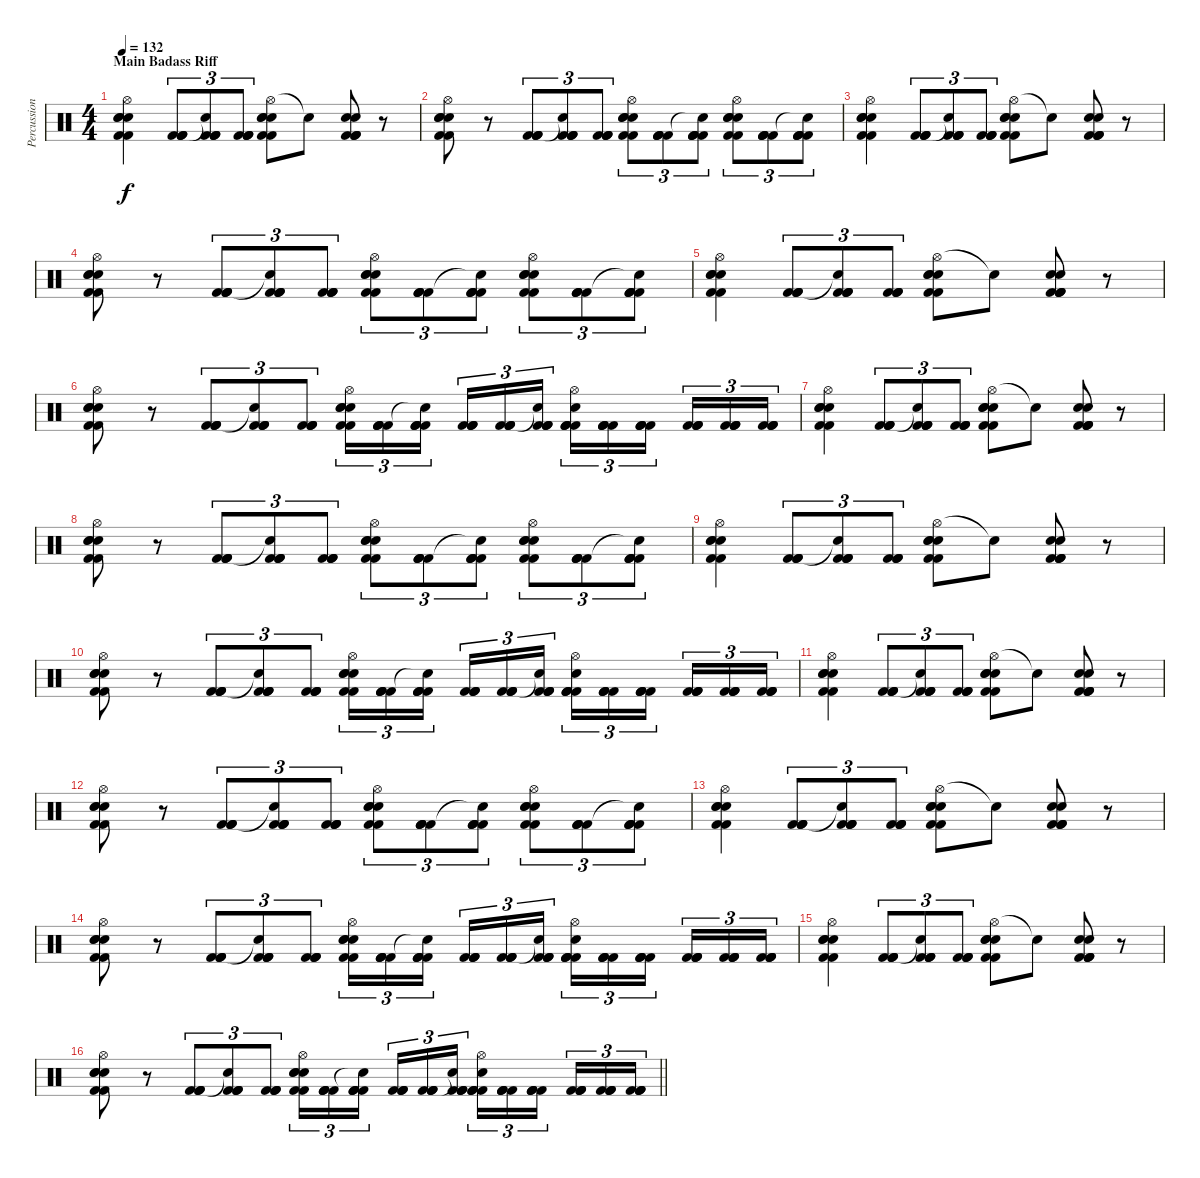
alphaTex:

\track ("Percussion" "Percussion") {instrument percussion}
\staff {score}
\articulation defaults
\ts (4 4)
\section ("" "Main Badass Riff")
\tempo 132
\clef neutral
\ks c
("Hi-Hat (open)" "Electric Snare (hit)" "Snare (hit) 2" "Snare (hit) 2" "Kick (hit) 2" "Kick (hit) 2").4{dy f} ("Kick (hit) 2" "Kick (hit) 2" "Kick (hit) 2" "Kick (hit) 2").8{tu (3 2)} ("Snare (hit)"{t} "Kick (hit) 2" "Kick (hit) 2" "Kick (hit) 2" "Kick (hit) 2").8{tu (3 2)} ("Kick (hit) 2" "Kick (hit) 2" "Kick (hit) 2" "Kick (hit) 2").8{tu (3 2)} ("Hi-Hat (open)" "Electric Snare (hit)" "Snare (hit) 2" "Snare (hit) 2" "Kick (hit) 2" "Kick (hit) 2").8 "Snare (hit)"{t}.8 ("Kick (hit) 2" "Kick (hit) 2" "Snare (hit) 2" "Snare (hit) 2" "Kick (hit) 2" "Kick (hit) 2").8 r.8 |
("Hi-Hat (open)" "Electric Snare (hit)" "Snare (hit) 2" "Snare (hit) 2" "Kick (hit) 2" "Kick (hit) 2").8 r.8 ("Kick (hit) 2" "Kick (hit) 2" "Kick (hit) 2" "Kick (hit) 2").8{tu (3 2)} ("Snare (hit)"{t} "Kick (hit) 2" "Kick (hit) 2" "Kick (hit) 2" "Kick (hit) 2").8{tu (3 2)} ("Kick (hit) 2" "Kick (hit) 2" "Kick (hit) 2" "Kick (hit) 2").8{tu (3 2)} ("Hi-Hat (open)" "Electric Snare (hit)" "Snare (hit) 2" "Snare (hit) 2" "Kick (hit) 2" "Kick (hit) 2").8{tu (3 2)} ("Kick (hit) 2" "Kick (hit) 2" "Kick (hit) 2" "Kick (hit) 2").8{tu (3 2)} ("Snare (hit)"{t} "Kick (hit) 2" "Kick (hit) 2" "Kick (hit) 2" "Kick (hit) 2").8{tu (3 2)} ("Hi-Hat (open)" "Electric Snare (hit)" "Snare (hit) 2" "Snare (hit) 2" "Kick (hit) 2" "Kick (hit) 2").8{tu (3 2)} ("Kick (hit) 2" "Kick (hit) 2" "Kick (hit) 2" "Kick (hit) 2").8{tu (3 2)} ("Snare (hit)"{t} "Kick (hit) 2" "Kick (hit) 2" "Kick (hit) 2" "Kick (hit) 2").8{tu (3 2)} |
("Hi-Hat (open)" "Electric Snare (hit)" "Snare (hit) 2" "Snare (hit) 2" "Kick (hit) 2" "Kick (hit) 2").4 ("Kick (hit) 2" "Kick (hit) 2" "Kick (hit) 2" "Kick (hit) 2").8{tu (3 2)} ("Snare (hit)"{t} "Kick (hit) 2" "Kick (hit) 2" "Kick (hit) 2" "Kick (hit) 2").8{tu (3 2)} ("Kick (hit) 2" "Kick (hit) 2" "Kick (hit) 2" "Kick (hit) 2").8{tu (3 2)} ("Hi-Hat (open)" "Electric Snare (hit)" "Snare (hit) 2" "Snare (hit) 2" "Kick (hit) 2" "Kick (hit) 2").8 "Snare (hit)"{t}.8 ("Kick (hit) 2" "Kick (hit) 2" "Snare (hit) 2" "Snare (hit) 2" "Kick (hit) 2" "Kick (hit) 2").8 r.8 |
("Hi-Hat (open)" "Electric Snare (hit)" "Snare (hit) 2" "Snare (hit) 2" "Kick (hit) 2" "Kick (hit) 2").8 r.8 ("Kick (hit) 2" "Kick (hit) 2" "Kick (hit) 2" "Kick (hit) 2").8{tu (3 2)} ("Snare (hit)"{t} "Kick (hit) 2" "Kick (hit) 2" "Kick (hit) 2" "Kick (hit) 2").8{tu (3 2)} ("Kick (hit) 2" "Kick (hit) 2" "Kick (hit) 2" "Kick (hit) 2").8{tu (3 2)} ("Hi-Hat (open)" "Electric Snare (hit)" "Snare (hit) 2" "Snare (hit) 2" "Kick (hit) 2" "Kick (hit) 2").8{tu (3 2)} ("Kick (hit) 2" "Kick (hit) 2" "Kick (hit) 2" "Kick (hit) 2").8{tu (3 2)} ("Snare (hit)"{t} "Kick (hit) 2" "Kick (hit) 2" "Kick (hit) 2" "Kick (hit) 2").8{tu (3 2)} ("Hi-Hat (open)" "Electric Snare (hit)" "Snare (hit) 2" "Snare (hit) 2" "Kick (hit) 2" "Kick (hit) 2").8{tu (3 2)} ("Kick (hit) 2" "Kick (hit) 2" "Kick (hit) 2" "Kick (hit) 2").8{tu (3 2)} ("Snare (hit)"{t} "Kick (hit) 2" "Kick (hit) 2" "Kick (hit) 2" "Kick (hit) 2").8{tu (3 2)} |
("Hi-Hat (open)" "Electric Snare (hit)" "Snare (hit) 2" "Snare (hit) 2" "Kick (hit) 2" "Kick (hit) 2").4 ("Kick (hit) 2" "Kick (hit) 2" "Kick (hit) 2" "Kick (hit) 2").8{tu (3 2)} ("Snare (hit)"{t} "Kick (hit) 2" "Kick (hit) 2" "Kick (hit) 2" "Kick (hit) 2").8{tu (3 2)} ("Kick (hit) 2" "Kick (hit) 2" "Kick (hit) 2" "Kick (hit) 2").8{tu (3 2)} ("Hi-Hat (open)" "Electric Snare (hit)" "Snare (hit) 2" "Snare (hit) 2" "Kick (hit) 2" "Kick (hit) 2").8 "Snare (hit)"{t}.8 ("Kick (hit) 2" "Kick (hit) 2" "Snare (hit) 2" "Snare (hit) 2" "Kick (hit) 2" "Kick (hit) 2").8 r.8 |
("Hi-Hat (open)" "Electric Snare (hit)" "Snare (hit) 2" "Snare (hit) 2" "Kick (hit) 2" "Kick (hit) 2").8 r.8 ("Kick (hit) 2" "Kick (hit) 2" "Kick (hit) 2" "Kick (hit) 2").8{tu (3 2)} ("Snare (hit)"{t} "Kick (hit) 2" "Kick (hit) 2" "Kick (hit) 2" "Kick (hit) 2").8{tu (3 2)} ("Kick (hit) 2" "Kick (hit) 2" "Kick (hit) 2" "Kick (hit) 2").8{tu (3 2)} ("Hi-Hat (open)" "Electric Snare (hit)" "Snare (hit) 2" "Snare (hit) 2" "Kick (hit) 2" "Kick (hit) 2").16{tu (3 2)} ("Kick (hit) 2" "Kick (hit) 2" "Kick (hit) 2" "Kick (hit) 2").16{tu (3 2)} ("Snare (hit)"{t} "Kick (hit) 2" "Kick (hit) 2" "Kick (hit) 2" "Kick (hit) 2").16{tu (3 2) beam splitsecondary} ("Kick (hit) 2" "Kick (hit) 2" "Kick (hit) 2" "Kick (hit) 2").16{tu (3 2)} ("Kick (hit) 2" "Kick (hit) 2" "Kick (hit) 2" "Kick (hit) 2").16{tu (3 2)} ("Snare (hit)"{t} "Kick (hit) 2" "Kick (hit) 2" "Kick (hit) 2" "Kick (hit) 2").16{tu (3 2)} ("Hi-Hat (open)" "Electric Snare (hit)" "Kick (hit) 2" "Kick (hit) 2" "Kick (hit) 2" "Kick (hit) 2").16{tu (3 2)} ("Kick (hit) 2" "Kick (hit) 2" "Kick (hit) 2" "Kick (hit) 2").16{tu (3 2)} ("Kick (hit) 2" "Kick (hit) 2" "Kick (hit) 2" "Kick (hit) 2").16{tu (3 2) beam splitsecondary} ("Kick (hit) 2" "Kick (hit) 2" "Kick (hit) 2" "Kick (hit) 2").16{tu (3 2)} ("Kick (hit) 2" "Kick (hit) 2" "Kick (hit) 2" "Kick (hit) 2").16{tu (3 2)} ("Kick (hit) 2" "Kick (hit) 2" "Kick (hit) 2" "Kick (hit) 2").16{tu (3 2)} |
("Hi-Hat (open)" "Electric Snare (hit)" "Snare (hit) 2" "Snare (hit) 2" "Kick (hit) 2" "Kick (hit) 2").4 ("Kick (hit) 2" "Kick (hit) 2" "Kick (hit) 2" "Kick (hit) 2").8{tu (3 2)} ("Snare (hit)"{t} "Kick (hit) 2" "Kick (hit) 2" "Kick (hit) 2" "Kick (hit) 2").8{tu (3 2)} ("Kick (hit) 2" "Kick (hit) 2" "Kick (hit) 2" "Kick (hit) 2").8{tu (3 2)} ("Hi-Hat (open)" "Electric Snare (hit)" "Snare (hit) 2" "Snare (hit) 2" "Kick (hit) 2" "Kick (hit) 2").8 "Snare (hit)"{t}.8 ("Kick (hit) 2" "Kick (hit) 2" "Snare (hit) 2" "Snare (hit) 2" "Kick (hit) 2" "Kick (hit) 2").8 r.8 |
("Hi-Hat (open)" "Electric Snare (hit)" "Snare (hit) 2" "Snare (hit) 2" "Kick (hit) 2" "Kick (hit) 2").8 r.8 ("Kick (hit) 2" "Kick (hit) 2" "Kick (hit) 2" "Kick (hit) 2").8{tu (3 2)} ("Snare (hit)"{t} "Kick (hit) 2" "Kick (hit) 2" "Kick (hit) 2" "Kick (hit) 2").8{tu (3 2)} ("Kick (hit) 2" "Kick (hit) 2" "Kick (hit) 2" "Kick (hit) 2").8{tu (3 2)} ("Hi-Hat (open)" "Electric Snare (hit)" "Snare (hit) 2" "Snare (hit) 2" "Kick (hit) 2" "Kick (hit) 2").8{tu (3 2)} ("Kick (hit) 2" "Kick (hit) 2" "Kick (hit) 2" "Kick (hit) 2").8{tu (3 2)} ("Snare (hit)"{t} "Kick (hit) 2" "Kick (hit) 2" "Kick (hit) 2" "Kick (hit) 2").8{tu (3 2)} ("Hi-Hat (open)" "Electric Snare (hit)" "Snare (hit) 2" "Snare (hit) 2" "Kick (hit) 2" "Kick (hit) 2").8{tu (3 2)} ("Kick (hit) 2" "Kick (hit) 2" "Kick (hit) 2" "Kick (hit) 2").8{tu (3 2)} ("Snare (hit)"{t} "Kick (hit) 2" "Kick (hit) 2" "Kick (hit) 2" "Kick (hit) 2").8{tu (3 2)} |
("Hi-Hat (open)" "Electric Snare (hit)" "Snare (hit) 2" "Snare (hit) 2" "Kick (hit) 2" "Kick (hit) 2").4 ("Kick (hit) 2" "Kick (hit) 2" "Kick (hit) 2" "Kick (hit) 2").8{tu (3 2)} ("Snare (hit)"{t} "Kick (hit) 2" "Kick (hit) 2" "Kick (hit) 2" "Kick (hit) 2").8{tu (3 2)} ("Kick (hit) 2" "Kick (hit) 2" "Kick (hit) 2" "Kick (hit) 2").8{tu (3 2)} ("Hi-Hat (open)" "Electric Snare (hit)" "Snare (hit) 2" "Snare (hit) 2" "Kick (hit) 2" "Kick (hit) 2").8 "Snare (hit)"{t}.8 ("Kick (hit) 2" "Kick (hit) 2" "Snare (hit) 2" "Snare (hit) 2" "Kick (hit) 2" "Kick (hit) 2").8 r.8 |
("Hi-Hat (open)" "Electric Snare (hit)" "Snare (hit) 2" "Snare (hit) 2" "Kick (hit) 2" "Kick (hit) 2").8 r.8 ("Kick (hit) 2" "Kick (hit) 2" "Kick (hit) 2" "Kick (hit) 2").8{tu (3 2)} ("Snare (hit)"{t} "Kick (hit) 2" "Kick (hit) 2" "Kick (hit) 2" "Kick (hit) 2").8{tu (3 2)} ("Kick (hit) 2" "Kick (hit) 2" "Kick (hit) 2" "Kick (hit) 2").8{tu (3 2)} ("Hi-Hat (open)" "Electric Snare (hit)" "Snare (hit) 2" "Snare (hit) 2" "Kick (hit) 2" "Kick (hit) 2").16{tu (3 2)} ("Kick (hit) 2" "Kick (hit) 2" "Kick (hit) 2" "Kick (hit) 2").16{tu (3 2)} ("Snare (hit)"{t} "Kick (hit) 2" "Kick (hit) 2" "Kick (hit) 2" "Kick (hit) 2").16{tu (3 2) beam splitsecondary} ("Kick (hit) 2" "Kick (hit) 2" "Kick (hit) 2" "Kick (hit) 2").16{tu (3 2)} ("Kick (hit) 2" "Kick (hit) 2" "Kick (hit) 2" "Kick (hit) 2").16{tu (3 2)} ("Snare (hit)"{t} "Kick (hit) 2" "Kick (hit) 2" "Kick (hit) 2" "Kick (hit) 2").16{tu (3 2)} ("Hi-Hat (open)" "Electric Snare (hit)" "Kick (hit) 2" "Kick (hit) 2" "Kick (hit) 2" "Kick (hit) 2").16{tu (3 2)} ("Kick (hit) 2" "Kick (hit) 2" "Kick (hit) 2" "Kick (hit) 2").16{tu (3 2)} ("Kick (hit) 2" "Kick (hit) 2" "Kick (hit) 2" "Kick (hit) 2").16{tu (3 2) beam splitsecondary} ("Kick (hit) 2" "Kick (hit) 2" "Kick (hit) 2" "Kick (hit) 2").16{tu (3 2)} ("Kick (hit) 2" "Kick (hit) 2" "Kick (hit) 2" "Kick (hit) 2").16{tu (3 2)} ("Kick (hit) 2" "Kick (hit) 2" "Kick (hit) 2" "Kick (hit) 2").16{tu (3 2)} |
("Hi-Hat (open)" "Electric Snare (hit)" "Snare (hit) 2" "Snare (hit) 2" "Kick (hit) 2" "Kick (hit) 2").4 ("Kick (hit) 2" "Kick (hit) 2" "Kick (hit) 2" "Kick (hit) 2").8{tu (3 2)} ("Snare (hit)"{t} "Kick (hit) 2" "Kick (hit) 2" "Kick (hit) 2" "Kick (hit) 2").8{tu (3 2)} ("Kick (hit) 2" "Kick (hit) 2" "Kick (hit) 2" "Kick (hit) 2").8{tu (3 2)} ("Hi-Hat (open)" "Electric Snare (hit)" "Snare (hit) 2" "Snare (hit) 2" "Kick (hit) 2" "Kick (hit) 2").8 "Snare (hit)"{t}.8 ("Kick (hit) 2" "Kick (hit) 2" "Snare (hit) 2" "Snare (hit) 2" "Kick (hit) 2" "Kick (hit) 2").8 r.8 |
("Hi-Hat (open)" "Electric Snare (hit)" "Snare (hit) 2" "Snare (hit) 2" "Kick (hit) 2" "Kick (hit) 2").8 r.8 ("Kick (hit) 2" "Kick (hit) 2" "Kick (hit) 2" "Kick (hit) 2").8{tu (3 2)} ("Snare (hit)"{t} "Kick (hit) 2" "Kick (hit) 2" "Kick (hit) 2" "Kick (hit) 2").8{tu (3 2)} ("Kick (hit) 2" "Kick (hit) 2" "Kick (hit) 2" "Kick (hit) 2").8{tu (3 2)} ("Hi-Hat (open)" "Electric Snare (hit)" "Snare (hit) 2" "Snare (hit) 2" "Kick (hit) 2" "Kick (hit) 2").8{tu (3 2)} ("Kick (hit) 2" "Kick (hit) 2" "Kick (hit) 2" "Kick (hit) 2").8{tu (3 2)} ("Snare (hit)"{t} "Kick (hit) 2" "Kick (hit) 2" "Kick (hit) 2" "Kick (hit) 2").8{tu (3 2)} ("Hi-Hat (open)" "Electric Snare (hit)" "Snare (hit) 2" "Snare (hit) 2" "Kick (hit) 2" "Kick (hit) 2").8{tu (3 2)} ("Kick (hit) 2" "Kick (hit) 2" "Kick (hit) 2" "Kick (hit) 2").8{tu (3 2)} ("Snare (hit)"{t} "Kick (hit) 2" "Kick (hit) 2" "Kick (hit) 2" "Kick (hit) 2").8{tu (3 2)} |
("Hi-Hat (open)" "Electric Snare (hit)" "Snare (hit) 2" "Snare (hit) 2" "Kick (hit) 2" "Kick (hit) 2").4 ("Kick (hit) 2" "Kick (hit) 2" "Kick (hit) 2" "Kick (hit) 2").8{tu (3 2)} ("Snare (hit)"{t} "Kick (hit) 2" "Kick (hit) 2" "Kick (hit) 2" "Kick (hit) 2").8{tu (3 2)} ("Kick (hit) 2" "Kick (hit) 2" "Kick (hit) 2" "Kick (hit) 2").8{tu (3 2)} ("Hi-Hat (open)" "Electric Snare (hit)" "Snare (hit) 2" "Snare (hit) 2" "Kick (hit) 2" "Kick (hit) 2").8 "Snare (hit)"{t}.8 ("Kick (hit) 2" "Kick (hit) 2" "Snare (hit) 2" "Snare (hit) 2" "Kick (hit) 2" "Kick (hit) 2").8 r.8 |
("Hi-Hat (open)" "Electric Snare (hit)" "Snare (hit) 2" "Snare (hit) 2" "Kick (hit) 2" "Kick (hit) 2").8 r.8 ("Kick (hit) 2" "Kick (hit) 2" "Kick (hit) 2" "Kick (hit) 2").8{tu (3 2)} ("Snare (hit)"{t} "Kick (hit) 2" "Kick (hit) 2" "Kick (hit) 2" "Kick (hit) 2").8{tu (3 2)} ("Kick (hit) 2" "Kick (hit) 2" "Kick (hit) 2" "Kick (hit) 2").8{tu (3 2)} ("Hi-Hat (open)" "Electric Snare (hit)" "Snare (hit) 2" "Snare (hit) 2" "Kick (hit) 2" "Kick (hit) 2").16{tu (3 2)} ("Kick (hit) 2" "Kick (hit) 2" "Kick (hit) 2" "Kick (hit) 2").16{tu (3 2)} ("Snare (hit)"{t} "Kick (hit) 2" "Kick (hit) 2" "Kick (hit) 2" "Kick (hit) 2").16{tu (3 2) beam splitsecondary} ("Kick (hit) 2" "Kick (hit) 2" "Kick (hit) 2" "Kick (hit) 2").16{tu (3 2)} ("Kick (hit) 2" "Kick (hit) 2" "Kick (hit) 2" "Kick (hit) 2").16{tu (3 2)} ("Snare (hit)"{t} "Kick (hit) 2" "Kick (hit) 2" "Kick (hit) 2" "Kick (hit) 2").16{tu (3 2)} ("Hi-Hat (open)" "Electric Snare (hit)" "Kick (hit) 2" "Kick (hit) 2" "Kick (hit) 2" "Kick (hit) 2").16{tu (3 2)} ("Kick (hit) 2" "Kick (hit) 2" "Kick (hit) 2" "Kick (hit) 2").16{tu (3 2)} ("Kick (hit) 2" "Kick (hit) 2" "Kick (hit) 2" "Kick (hit) 2").16{tu (3 2) beam splitsecondary} ("Kick (hit) 2" "Kick (hit) 2" "Kick (hit) 2" "Kick (hit) 2").16{tu (3 2)} ("Kick (hit) 2" "Kick (hit) 2" "Kick (hit) 2" "Kick (hit) 2").16{tu (3 2)} ("Kick (hit) 2" "Kick (hit) 2" "Kick (hit) 2" "Kick (hit) 2").16{tu (3 2)} |
("Hi-Hat (open)" "Electric Snare (hit)" "Snare (hit) 2" "Snare (hit) 2" "Kick (hit) 2" "Kick (hit) 2").4 ("Kick (hit) 2" "Kick (hit) 2" "Kick (hit) 2" "Kick (hit) 2").8{tu (3 2)} ("Snare (hit)"{t} "Kick (hit) 2" "Kick (hit) 2" "Kick (hit) 2" "Kick (hit) 2").8{tu (3 2)} ("Kick (hit) 2" "Kick (hit) 2" "Kick (hit) 2" "Kick (hit) 2").8{tu (3 2)} ("Hi-Hat (open)" "Electric Snare (hit)" "Snare (hit) 2" "Snare (hit) 2" "Kick (hit) 2" "Kick (hit) 2").8 "Snare (hit)"{t}.8 ("Kick (hit) 2" "Kick (hit) 2" "Snare (hit) 2" "Snare (hit) 2" "Kick (hit) 2" "Kick (hit) 2").8 r.8 |
\barLineRight lightlight
("Hi-Hat (open)" "Electric Snare (hit)" "Snare (hit) 2" "Snare (hit) 2" "Kick (hit) 2" "Kick (hit) 2").8 r.8 ("Kick (hit) 2" "Kick (hit) 2" "Kick (hit) 2" "Kick (hit) 2").8{tu (3 2)} ("Snare (hit)"{t} "Kick (hit) 2" "Kick (hit) 2" "Kick (hit) 2" "Kick (hit) 2").8{tu (3 2)} ("Kick (hit) 2" "Kick (hit) 2" "Kick (hit) 2" "Kick (hit) 2").8{tu (3 2)} ("Hi-Hat (open)" "Electric Snare (hit)" "Snare (hit) 2" "Snare (hit) 2" "Kick (hit) 2" "Kick (hit) 2").16{tu (3 2)} ("Kick (hit) 2" "Kick (hit) 2" "Kick (hit) 2" "Kick (hit) 2").16{tu (3 2)} ("Snare (hit)"{t} "Kick (hit) 2" "Kick (hit) 2" "Kick (hit) 2" "Kick (hit) 2").16{tu (3 2) beam splitsecondary} ("Kick (hit) 2" "Kick (hit) 2" "Kick (hit) 2" "Kick (hit) 2").16{tu (3 2)} ("Kick (hit) 2" "Kick (hit) 2" "Kick (hit) 2" "Kick (hit) 2").16{tu (3 2)} ("Snare (hit)"{t} "Kick (hit) 2" "Kick (hit) 2" "Kick (hit) 2" "Kick (hit) 2").16{tu (3 2)} ("Hi-Hat (open)" "Electric Snare (hit)" "Kick (hit) 2" "Kick (hit) 2" "Kick (hit) 2" "Kick (hit) 2").16{tu (3 2)} ("Kick (hit) 2" "Kick (hit) 2" "Kick (hit) 2" "Kick (hit) 2").16{tu (3 2)} ("Kick (hit) 2" "Kick (hit) 2" "Kick (hit) 2" "Kick (hit) 2").16{tu (3 2) beam splitsecondary} ("Kick (hit) 2" "Kick (hit) 2" "Kick (hit) 2" "Kick (hit) 2").16{tu (3 2)} ("Kick (hit) 2" "Kick (hit) 2" "Kick (hit) 2" "Kick (hit) 2").16{tu (3 2)} ("Kick (hit) 2" "Kick (hit) 2" "Kick (hit) 2" "Kick (hit) 2").16{tu (3 2)}
